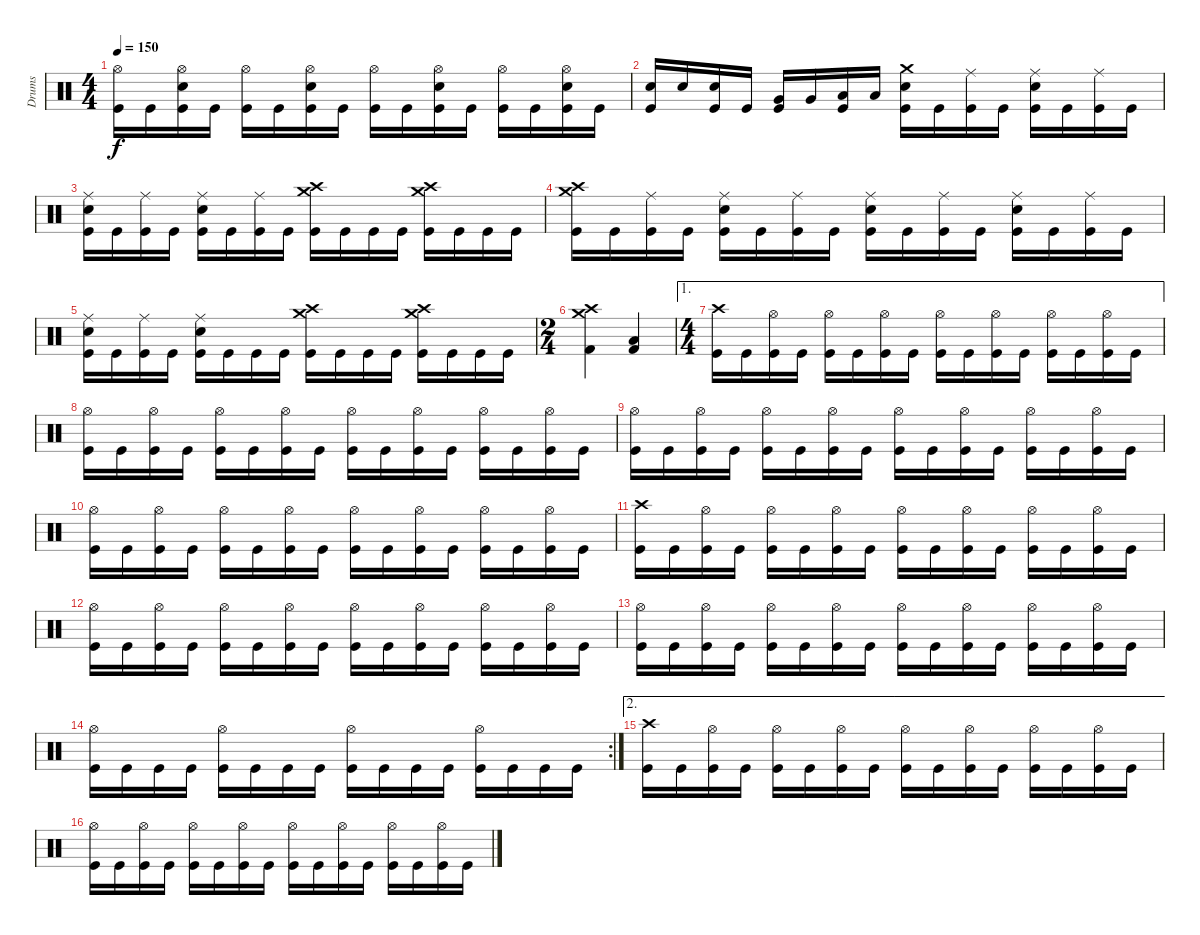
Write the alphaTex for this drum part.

\track ("Drums" "Drums") {instrument percussion}
\staff {score}
\articulation defaults
\ts (4 4)
\tempo 150
\clef neutral
\ks c
("Hi-Hat (open)" "Kick (hit)").16{dy f} "Kick (hit)".16 ("Hi-Hat (open)" "Snare (hit) 2" "Kick (hit)").16 "Kick (hit)".16 ("Hi-Hat (open)" "Kick (hit)").16 "Kick (hit)".16 ("Hi-Hat (open)" "Snare (hit) 2" "Kick (hit)").16 "Kick (hit)".16 ("Hi-Hat (open)" "Kick (hit)").16 "Kick (hit)".16 ("Hi-Hat (open)" "Snare (hit) 2" "Kick (hit)").16 "Kick (hit)".16 ("Hi-Hat (open)" "Kick (hit)").16 "Kick (hit)".16 ("Hi-Hat (open)" "Snare (hit) 2" "Kick (hit)").16 "Kick (hit)".16 |
("Snare (hit) 2" "Kick (hit)").16 "Snare (hit) 2".16 ("Snare (hit) 2" "Kick (hit)").16 "Kick (hit)".16 ("Very Low Tom (hit)" "Kick (hit)").16 "Very Low Tom (hit)".16 ("Low Floor Tom (hit)" "Kick (hit)").16 "Low Floor Tom (hit)".16 ("Crash medium (hit)" "Snare (hit) 2" "Kick (hit)").16 "Kick (hit)".16 ("Ride (middle)" "Kick (hit)").16 "Kick (hit)".16 ("Ride (middle)" "Snare (hit) 2" "Kick (hit)").16 "Kick (hit)".16 ("Ride (middle)" "Kick (hit)").16 "Kick (hit)".16 |
("Ride (middle)" "Snare (hit) 2" "Kick (hit)").16 "Kick (hit)".16 ("Ride (middle)" "Kick (hit)").16 "Kick (hit)".16 ("Ride (middle)" "Snare (hit) 2" "Kick (hit)").16 "Kick (hit)".16 ("Ride (middle)" "Kick (hit)").16 "Kick (hit)".16 ("Crash medium (hit)" "Crash high (hit)" "Kick (hit)").16 "Kick (hit)".16 "Kick (hit)".16 "Kick (hit)".16 ("Crash medium (hit)" "Crash high (hit)" "Kick (hit)").16 "Kick (hit)".16 "Kick (hit)".16 "Kick (hit)".16 |
("Crash medium (hit)" "Crash high (hit)" "Kick (hit)").16 "Kick (hit)".16 ("Ride (middle)" "Kick (hit)").16 "Kick (hit)".16 ("Ride (middle)" "Snare (hit) 2" "Kick (hit)").16 "Kick (hit)".16 ("Ride (middle)" "Kick (hit)").16 "Kick (hit)".16 ("Ride (middle)" "Snare (hit) 2" "Kick (hit)").16 "Kick (hit)".16 ("Ride (middle)" "Kick (hit)").16 "Kick (hit)".16 ("Ride (middle)" "Snare (hit) 2" "Kick (hit)").16 "Kick (hit)".16 ("Ride (middle)" "Kick (hit)").16 "Kick (hit)".16 |
("Ride (middle)" "Snare (hit) 2" "Kick (hit)").16 "Kick (hit)".16 ("Ride (middle)" "Kick (hit)").16 "Kick (hit)".16 ("Ride (middle)" "Snare (hit) 2" "Kick (hit)").16 "Kick (hit)".16 "Kick (hit)".16 "Kick (hit)".16 ("Crash medium (hit)" "Crash high (hit)" "Kick (hit)").16 "Kick (hit)".16 "Kick (hit)".16 "Kick (hit)".16 ("Crash medium (hit)" "Crash high (hit)" "Kick (hit)").16 "Kick (hit)".16 "Kick (hit)".16 "Kick (hit)".16 |
\ts (2 4)
("Crash medium (hit)" "Crash high (hit)" "Kick (hit) 2").4 ("Low Floor Tom (hit)" "Kick (hit) 2").4 |
\ae 1
\ts (4 4)
("Crash high (hit)" "Kick (hit)").16 "Kick (hit)".16 ("Hi-Hat (open)" "Kick (hit)").16 "Kick (hit)".16 ("Hi-Hat (open)" "Kick (hit)").16 "Kick (hit)".16 ("Hi-Hat (open)" "Kick (hit)").16 "Kick (hit)".16 ("Hi-Hat (open)" "Kick (hit)").16 "Kick (hit)".16 ("Hi-Hat (open)" "Kick (hit)").16 "Kick (hit)".16 ("Hi-Hat (open)" "Kick (hit)").16 "Kick (hit)".16 ("Hi-Hat (open)" "Kick (hit)").16 "Kick (hit)".16 |
("Hi-Hat (open)" "Kick (hit)").16 "Kick (hit)".16 ("Hi-Hat (open)" "Kick (hit)").16 "Kick (hit)".16 ("Hi-Hat (open)" "Kick (hit)").16 "Kick (hit)".16 ("Hi-Hat (open)" "Kick (hit)").16 "Kick (hit)".16 ("Hi-Hat (open)" "Kick (hit)").16 "Kick (hit)".16 ("Hi-Hat (open)" "Kick (hit)").16 "Kick (hit)".16 ("Hi-Hat (open)" "Kick (hit)").16 "Kick (hit)".16 ("Hi-Hat (open)" "Kick (hit)").16 "Kick (hit)".16 |
("Hi-Hat (open)" "Kick (hit)").16 "Kick (hit)".16 ("Hi-Hat (open)" "Kick (hit)").16 "Kick (hit)".16 ("Hi-Hat (open)" "Kick (hit)").16 "Kick (hit)".16 ("Hi-Hat (open)" "Kick (hit)").16 "Kick (hit)".16 ("Hi-Hat (open)" "Kick (hit)").16 "Kick (hit)".16 ("Hi-Hat (open)" "Kick (hit)").16 "Kick (hit)".16 ("Hi-Hat (open)" "Kick (hit)").16 "Kick (hit)".16 ("Hi-Hat (open)" "Kick (hit)").16 "Kick (hit)".16 |
("Hi-Hat (open)" "Kick (hit)").16 "Kick (hit)".16 ("Hi-Hat (open)" "Kick (hit)").16 "Kick (hit)".16 ("Hi-Hat (open)" "Kick (hit)").16 "Kick (hit)".16 ("Hi-Hat (open)" "Kick (hit)").16 "Kick (hit)".16 ("Hi-Hat (open)" "Kick (hit)").16 "Kick (hit)".16 ("Hi-Hat (open)" "Kick (hit)").16 "Kick (hit)".16 ("Hi-Hat (open)" "Kick (hit)").16 "Kick (hit)".16 ("Hi-Hat (open)" "Kick (hit)").16 "Kick (hit)".16 |
("Crash high (hit)" "Kick (hit)").16 "Kick (hit)".16 ("Hi-Hat (open)" "Kick (hit)").16 "Kick (hit)".16 ("Hi-Hat (open)" "Kick (hit)").16 "Kick (hit)".16 ("Hi-Hat (open)" "Kick (hit)").16 "Kick (hit)".16 ("Hi-Hat (open)" "Kick (hit)").16 "Kick (hit)".16 ("Hi-Hat (open)" "Kick (hit)").16 "Kick (hit)".16 ("Hi-Hat (open)" "Kick (hit)").16 "Kick (hit)".16 ("Hi-Hat (open)" "Kick (hit)").16 "Kick (hit)".16 |
("Hi-Hat (open)" "Kick (hit)").16 "Kick (hit)".16 ("Hi-Hat (open)" "Kick (hit)").16 "Kick (hit)".16 ("Hi-Hat (open)" "Kick (hit)").16 "Kick (hit)".16 ("Hi-Hat (open)" "Kick (hit)").16 "Kick (hit)".16 ("Hi-Hat (open)" "Kick (hit)").16 "Kick (hit)".16 ("Hi-Hat (open)" "Kick (hit)").16 "Kick (hit)".16 ("Hi-Hat (open)" "Kick (hit)").16 "Kick (hit)".16 ("Hi-Hat (open)" "Kick (hit)").16 "Kick (hit)".16 |
("Hi-Hat (open)" "Kick (hit)").16 "Kick (hit)".16 ("Hi-Hat (open)" "Kick (hit)").16 "Kick (hit)".16 ("Hi-Hat (open)" "Kick (hit)").16 "Kick (hit)".16 ("Hi-Hat (open)" "Kick (hit)").16 "Kick (hit)".16 ("Hi-Hat (open)" "Kick (hit)").16 "Kick (hit)".16 ("Hi-Hat (open)" "Kick (hit)").16 "Kick (hit)".16 ("Hi-Hat (open)" "Kick (hit)").16 "Kick (hit)".16 ("Hi-Hat (open)" "Kick (hit)").16 "Kick (hit)".16 |
\rc 2
("Hi-Hat (open)" "Kick (hit)").16 "Kick (hit)".16 "Kick (hit)".16 "Kick (hit)".16 ("Hi-Hat (open)" "Kick (hit)").16 "Kick (hit)".16 "Kick (hit)".16 "Kick (hit)".16 ("Hi-Hat (open)" "Kick (hit)").16 "Kick (hit)".16 "Kick (hit)".16 "Kick (hit)".16 ("Hi-Hat (open)" "Kick (hit)").16 "Kick (hit)".16 "Kick (hit)".16 "Kick (hit)".16 |
\ae 2
("Crash high (hit)" "Kick (hit)").16 "Kick (hit)".16 ("Hi-Hat (open)" "Kick (hit)").16 "Kick (hit)".16 ("Hi-Hat (open)" "Kick (hit)").16 "Kick (hit)".16 ("Hi-Hat (open)" "Kick (hit)").16 "Kick (hit)".16 ("Hi-Hat (open)" "Kick (hit)").16 "Kick (hit)".16 ("Hi-Hat (open)" "Kick (hit)").16 "Kick (hit)".16 ("Hi-Hat (open)" "Kick (hit)").16 "Kick (hit)".16 ("Hi-Hat (open)" "Kick (hit)").16 "Kick (hit)".16 |
("Hi-Hat (open)" "Kick (hit)").16 "Kick (hit)".16 ("Hi-Hat (open)" "Kick (hit)").16 "Kick (hit)".16 ("Hi-Hat (open)" "Kick (hit)").16 "Kick (hit)".16 ("Hi-Hat (open)" "Kick (hit)").16 "Kick (hit)".16 ("Hi-Hat (open)" "Kick (hit)").16 "Kick (hit)".16 ("Hi-Hat (open)" "Kick (hit)").16 "Kick (hit)".16 ("Hi-Hat (open)" "Kick (hit)").16 "Kick (hit)".16 ("Hi-Hat (open)" "Kick (hit)").16 "Kick (hit)".16
